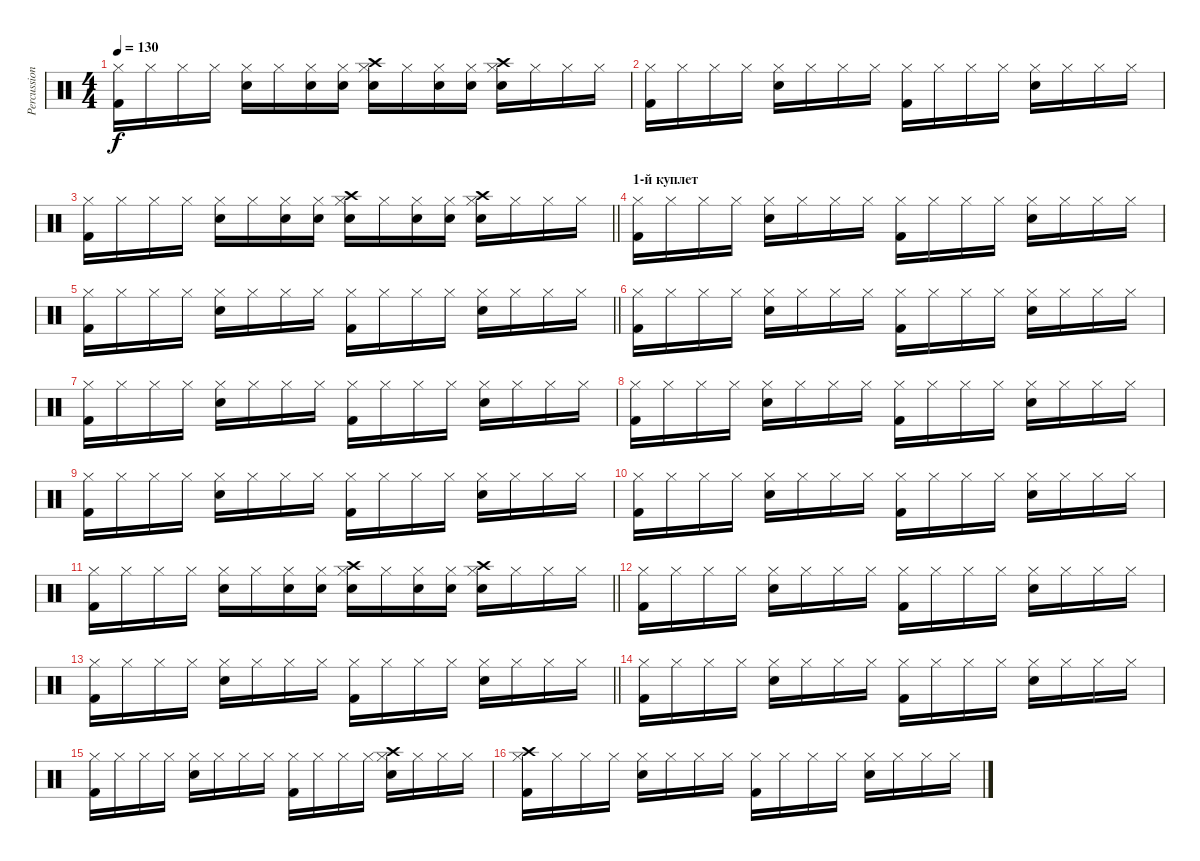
\track ("Percussion" "Percussion") {instrument percussion}
\staff {score}
\articulation defaults
\ts (4 4)
\tempo 130
\clef neutral
\ks c
("Hi-Hat (closed)" "Kick (hit) 2").16{dy f} "Hi-Hat (closed)".16 "Hi-Hat (closed)".16 "Hi-Hat (closed)".16 ("Hi-Hat (closed)" "Snare (hit) 2").16 "Hi-Hat (closed)".16 ("Hi-Hat (closed)" "Snare (hit) 2").16 ("Hi-Hat (closed)" "Snare (hit) 2").16 ("Crash high (hit)" "Hi-Hat (closed)" "Snare (hit) 2").16 "Hi-Hat (closed)".16 ("Hi-Hat (closed)" "Snare (hit) 2").16 ("Snare (hit) 2" "Hi-Hat (closed)").16 ("Crash high (hit)" "Snare (hit) 2" "Hi-Hat (closed)").16 "Hi-Hat (closed)".16 "Hi-Hat (closed)".16 "Hi-Hat (closed)".16 |
("Kick (hit) 2" "Hi-Hat (closed)").16 "Hi-Hat (closed)".16 "Hi-Hat (closed)".16 "Hi-Hat (closed)".16 ("Snare (hit) 2" "Hi-Hat (closed)").16 "Hi-Hat (closed)".16 "Hi-Hat (closed)".16 "Hi-Hat (closed)".16 ("Kick (hit) 2" "Hi-Hat (closed)").16 "Hi-Hat (closed)".16 "Hi-Hat (closed)".16 "Hi-Hat (closed)".16 ("Snare (hit) 2" "Hi-Hat (closed)").16 "Hi-Hat (closed)".16 "Hi-Hat (closed)".16 "Hi-Hat (closed)".16 |
\barLineRight lightlight
("Hi-Hat (closed)" "Kick (hit) 2").16 "Hi-Hat (closed)".16 "Hi-Hat (closed)".16 "Hi-Hat (closed)".16 ("Hi-Hat (closed)" "Snare (hit) 2").16 "Hi-Hat (closed)".16 ("Hi-Hat (closed)" "Snare (hit) 2").16 ("Hi-Hat (closed)" "Snare (hit) 2").16 ("Crash high (hit)" "Hi-Hat (closed)" "Snare (hit) 2").16 "Hi-Hat (closed)".16 ("Hi-Hat (closed)" "Snare (hit) 2").16 ("Snare (hit) 2" "Hi-Hat (closed)").16 ("Crash high (hit)" "Snare (hit) 2" "Hi-Hat (closed)").16 "Hi-Hat (closed)".16 "Hi-Hat (closed)".16 "Hi-Hat (closed)".16 |
\section ("" "1-й куплет")
("Kick (hit) 2" "Hi-Hat (closed)").16 "Hi-Hat (closed)".16 "Hi-Hat (closed)".16 "Hi-Hat (closed)".16 ("Snare (hit) 2" "Hi-Hat (closed)").16 "Hi-Hat (closed)".16 "Hi-Hat (closed)".16 "Hi-Hat (closed)".16 ("Kick (hit) 2" "Hi-Hat (closed)").16 "Hi-Hat (closed)".16 "Hi-Hat (closed)".16 "Hi-Hat (closed)".16 ("Snare (hit) 2" "Hi-Hat (closed)").16 "Hi-Hat (closed)".16 "Hi-Hat (closed)".16 "Hi-Hat (closed)".16 |
\barLineRight lightlight
("Kick (hit) 2" "Hi-Hat (closed)").16 "Hi-Hat (closed)".16 "Hi-Hat (closed)".16 "Hi-Hat (closed)".16 ("Snare (hit) 2" "Hi-Hat (closed)").16 "Hi-Hat (closed)".16 "Hi-Hat (closed)".16 "Hi-Hat (closed)".16 ("Kick (hit) 2" "Hi-Hat (closed)").16 "Hi-Hat (closed)".16 "Hi-Hat (closed)".16 "Hi-Hat (closed)".16 ("Snare (hit) 2" "Hi-Hat (closed)").16 "Hi-Hat (closed)".16 "Hi-Hat (closed)".16 "Hi-Hat (closed)".16 |
("Kick (hit) 2" "Hi-Hat (closed)").16 "Hi-Hat (closed)".16 "Hi-Hat (closed)".16 "Hi-Hat (closed)".16 ("Snare (hit) 2" "Hi-Hat (closed)").16 "Hi-Hat (closed)".16 "Hi-Hat (closed)".16 "Hi-Hat (closed)".16 ("Kick (hit) 2" "Hi-Hat (closed)").16 "Hi-Hat (closed)".16 "Hi-Hat (closed)".16 "Hi-Hat (closed)".16 ("Snare (hit) 2" "Hi-Hat (closed)").16 "Hi-Hat (closed)".16 "Hi-Hat (closed)".16 "Hi-Hat (closed)".16 |
("Kick (hit) 2" "Hi-Hat (closed)").16 "Hi-Hat (closed)".16 "Hi-Hat (closed)".16 "Hi-Hat (closed)".16 ("Snare (hit) 2" "Hi-Hat (closed)").16 "Hi-Hat (closed)".16 "Hi-Hat (closed)".16 "Hi-Hat (closed)".16 ("Kick (hit) 2" "Hi-Hat (closed)").16 "Hi-Hat (closed)".16 "Hi-Hat (closed)".16 "Hi-Hat (closed)".16 ("Snare (hit) 2" "Hi-Hat (closed)").16 "Hi-Hat (closed)".16 "Hi-Hat (closed)".16 "Hi-Hat (closed)".16 |
("Kick (hit) 2" "Hi-Hat (closed)").16 "Hi-Hat (closed)".16 "Hi-Hat (closed)".16 "Hi-Hat (closed)".16 ("Snare (hit) 2" "Hi-Hat (closed)").16 "Hi-Hat (closed)".16 "Hi-Hat (closed)".16 "Hi-Hat (closed)".16 ("Kick (hit) 2" "Hi-Hat (closed)").16 "Hi-Hat (closed)".16 "Hi-Hat (closed)".16 "Hi-Hat (closed)".16 ("Snare (hit) 2" "Hi-Hat (closed)").16 "Hi-Hat (closed)".16 "Hi-Hat (closed)".16 "Hi-Hat (closed)".16 |
("Kick (hit) 2" "Hi-Hat (closed)").16 "Hi-Hat (closed)".16 "Hi-Hat (closed)".16 "Hi-Hat (closed)".16 ("Snare (hit) 2" "Hi-Hat (closed)").16 "Hi-Hat (closed)".16 "Hi-Hat (closed)".16 "Hi-Hat (closed)".16 ("Kick (hit) 2" "Hi-Hat (closed)").16 "Hi-Hat (closed)".16 "Hi-Hat (closed)".16 "Hi-Hat (closed)".16 ("Snare (hit) 2" "Hi-Hat (closed)").16 "Hi-Hat (closed)".16 "Hi-Hat (closed)".16 "Hi-Hat (closed)".16 |
("Kick (hit) 2" "Hi-Hat (closed)").16 "Hi-Hat (closed)".16 "Hi-Hat (closed)".16 "Hi-Hat (closed)".16 ("Snare (hit) 2" "Hi-Hat (closed)").16 "Hi-Hat (closed)".16 "Hi-Hat (closed)".16 "Hi-Hat (closed)".16 ("Kick (hit) 2" "Hi-Hat (closed)").16 "Hi-Hat (closed)".16 "Hi-Hat (closed)".16 "Hi-Hat (closed)".16 ("Snare (hit) 2" "Hi-Hat (closed)").16 "Hi-Hat (closed)".16 "Hi-Hat (closed)".16 "Hi-Hat (closed)".16 |
\barLineRight lightlight
("Hi-Hat (closed)" "Kick (hit) 2").16 "Hi-Hat (closed)".16 "Hi-Hat (closed)".16 "Hi-Hat (closed)".16 ("Hi-Hat (closed)" "Snare (hit) 2").16 "Hi-Hat (closed)".16 ("Hi-Hat (closed)" "Snare (hit) 2").16 ("Hi-Hat (closed)" "Snare (hit) 2").16 ("Crash high (hit)" "Hi-Hat (closed)" "Snare (hit) 2").16 "Hi-Hat (closed)".16 ("Hi-Hat (closed)" "Snare (hit) 2").16 ("Snare (hit) 2" "Hi-Hat (closed)").16 ("Crash high (hit)" "Snare (hit) 2" "Hi-Hat (closed)").16 "Hi-Hat (closed)".16 "Hi-Hat (closed)".16 "Hi-Hat (closed)".16 |
("Kick (hit) 2" "Hi-Hat (closed)").16 "Hi-Hat (closed)".16 "Hi-Hat (closed)".16 "Hi-Hat (closed)".16 ("Snare (hit) 2" "Hi-Hat (closed)").16 "Hi-Hat (closed)".16 "Hi-Hat (closed)".16 "Hi-Hat (closed)".16 ("Kick (hit) 2" "Hi-Hat (closed)").16 "Hi-Hat (closed)".16 "Hi-Hat (closed)".16 "Hi-Hat (closed)".16 ("Snare (hit) 2" "Hi-Hat (closed)").16 "Hi-Hat (closed)".16 "Hi-Hat (closed)".16 "Hi-Hat (closed)".16 |
\barLineRight lightlight
("Kick (hit) 2" "Hi-Hat (closed)").16 "Hi-Hat (closed)".16 "Hi-Hat (closed)".16 "Hi-Hat (closed)".16 ("Snare (hit) 2" "Hi-Hat (closed)").16 "Hi-Hat (closed)".16 "Hi-Hat (closed)".16 "Hi-Hat (closed)".16 ("Kick (hit) 2" "Hi-Hat (closed)").16 "Hi-Hat (closed)".16 "Hi-Hat (closed)".16 "Hi-Hat (closed)".16 ("Snare (hit) 2" "Hi-Hat (closed)").16 "Hi-Hat (closed)".16 "Hi-Hat (closed)".16 "Hi-Hat (closed)".16 |
("Kick (hit) 2" "Hi-Hat (closed)").16 "Hi-Hat (closed)".16 "Hi-Hat (closed)".16 "Hi-Hat (closed)".16 ("Snare (hit) 2" "Hi-Hat (closed)").16 "Hi-Hat (closed)".16 "Hi-Hat (closed)".16 "Hi-Hat (closed)".16 ("Kick (hit) 2" "Hi-Hat (closed)").16 "Hi-Hat (closed)".16 "Hi-Hat (closed)".16 "Hi-Hat (closed)".16 ("Snare (hit) 2" "Hi-Hat (closed)").16 "Hi-Hat (closed)".16 "Hi-Hat (closed)".16 "Hi-Hat (closed)".16 |
("Kick (hit) 2" "Hi-Hat (closed)").16 "Hi-Hat (closed)".16 "Hi-Hat (closed)".16 "Hi-Hat (closed)".16 ("Snare (hit) 2" "Hi-Hat (closed)").16 "Hi-Hat (closed)".16 "Hi-Hat (closed)".16 "Hi-Hat (closed)".16 ("Kick (hit) 2" "Hi-Hat (closed)").16 "Hi-Hat (closed)".16 "Hi-Hat (closed)".16 "Hi-Hat (closed)".16 ("Crash high (hit)" "Snare (hit) 2" "Hi-Hat (closed)").16 "Hi-Hat (closed)".16 "Hi-Hat (closed)".16 "Hi-Hat (closed)".16 |
("Kick (hit) 2" "Hi-Hat (closed)" "Crash high (hit)").16 "Hi-Hat (closed)".16 "Hi-Hat (closed)".16 "Hi-Hat (closed)".16 ("Hi-Hat (closed)" "Snare (hit) 2").16 "Hi-Hat (closed)".16 "Hi-Hat (closed)".16 "Hi-Hat (closed)".16 ("Kick (hit) 2" "Hi-Hat (closed)").16 "Hi-Hat (closed)".16 "Hi-Hat (closed)".16 "Hi-Hat (closed)".16 ("Hi-Hat (closed)" "Snare (hit) 2").16 "Hi-Hat (closed)".16 "Hi-Hat (closed)".16 "Hi-Hat (closed)".16
